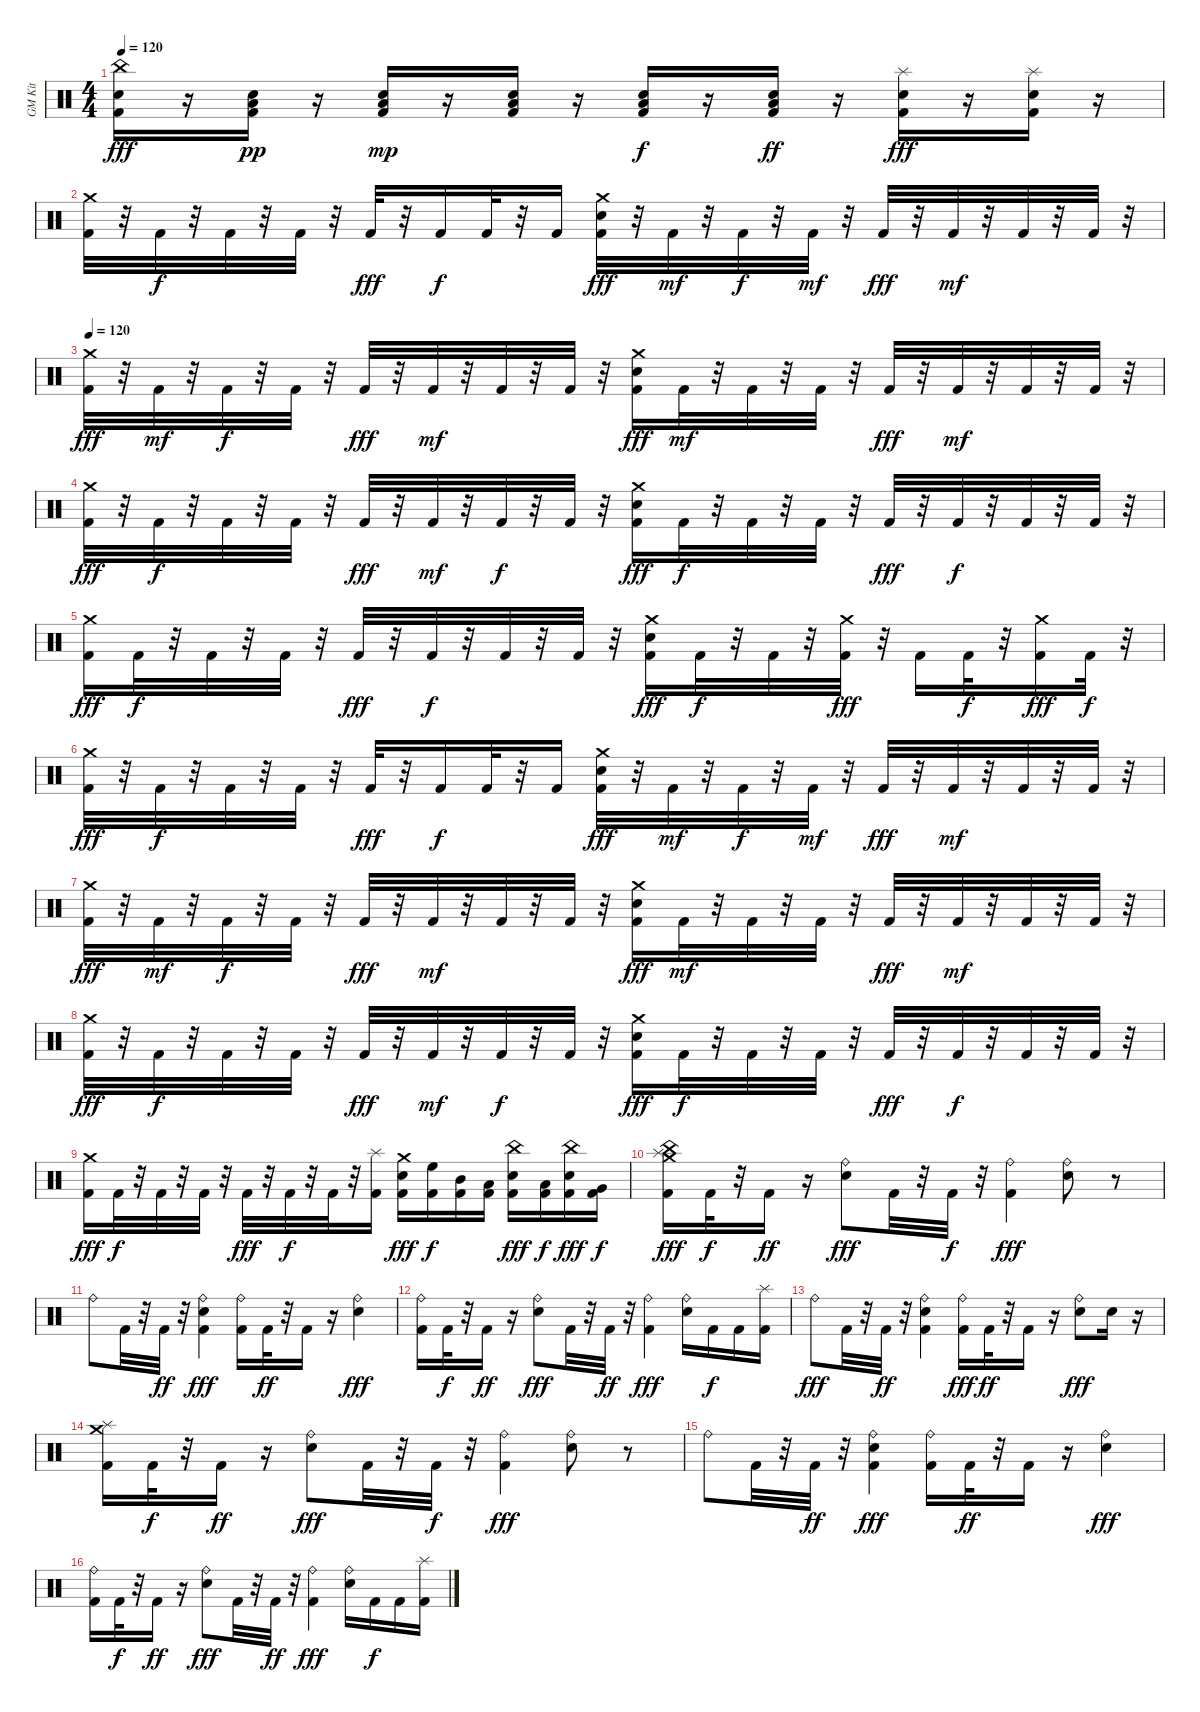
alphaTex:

\track ("GM Kit" "GM Kit") {instrument percussion}
\staff {score}
\articulation defaults
\ts (4 4)
\tempo 120
\clef neutral
\ks c
("Kick (hit) 2" "Snare (hit) 2" "China (hit)").16{dy fff} r.16 ("Kick (hit) 2" "Snare (hit) 2" "Low Floor Tom (hit)").16{dy pp} r.16 ("Kick (hit) 2" "Snare (hit) 2" "Low Floor Tom (hit)").16{dy mp} r.16 ("Kick (hit) 2" "Snare (hit) 2" "Low Floor Tom (hit)").16 r.16 ("Kick (hit) 2" "Snare (hit) 2" "Low Floor Tom (hit)").16{dy f} r.16 ("Kick (hit) 2" "Snare (hit) 2" "Low Floor Tom (hit)").16{dy ff} r.16 ("Kick (hit) 2" "Snare (hit) 2" "Splash (hit)").16{dy fff} r.16 ("Kick (hit) 2" "Snare (hit) 2" "Splash (hit)").16 r.16 |
("Kick (hit) 2" "Crash medium (hit)").32 r.32 "Kick (hit) 2".32{dy f} r.32 "Kick (hit) 2".32 r.32 "Kick (hit) 2".32 r.32 "Kick (hit) 2".32{dy fff} r.32 "Kick (hit) 2".16{dy f} "Kick (hit) 2".32 r.32 "Kick (hit) 2".16 ("Kick (hit) 2" "Snare (hit) 2" "Crash medium (hit)").32{dy fff} r.32 "Kick (hit) 2".32{dy mf} r.32 "Kick (hit) 2".32{dy f} r.32 "Kick (hit) 2".32{dy mf} r.32 "Kick (hit) 2".32{dy fff} r.32 "Kick (hit) 2".32{dy mf} r.32 "Kick (hit) 2".32 r.32 "Kick (hit) 2".32 r.32 |
\tempo 120
("Kick (hit) 2" "Crash medium (hit)").32{dy fff} r.32 "Kick (hit) 2".32{dy mf} r.32 "Kick (hit) 2".32{dy f} r.32 "Kick (hit) 2".32 r.32 "Kick (hit) 2".32{dy fff} r.32 "Kick (hit) 2".32{dy mf} r.32 "Kick (hit) 2".32 r.32 "Kick (hit) 2".32 r.32 ("Kick (hit) 2" "Snare (hit) 2" "Crash medium (hit)").16{dy fff} "Kick (hit) 2".32{dy mf} r.32 "Kick (hit) 2".32 r.32 "Kick (hit) 2".32 r.32 "Kick (hit) 2".32{dy fff} r.32 "Kick (hit) 2".32{dy mf} r.32 "Kick (hit) 2".32 r.32 "Kick (hit) 2".32 r.32 |
("Kick (hit) 2" "Crash medium (hit)").32{dy fff} r.32 "Kick (hit) 2".32{dy f} r.32 "Kick (hit) 2".32 r.32 "Kick (hit) 2".32 r.32 "Kick (hit) 2".32{dy fff} r.32 "Kick (hit) 2".32{dy mf} r.32 "Kick (hit) 2".32{dy f} r.32 "Kick (hit) 2".32 r.32 ("Kick (hit) 2" "Snare (hit) 2" "Crash medium (hit)").16{dy fff} "Kick (hit) 2".32{dy f} r.32 "Kick (hit) 2".32 r.32 "Kick (hit) 2".32 r.32 "Kick (hit) 2".32{dy fff} r.32 "Kick (hit) 2".32{dy f} r.32 "Kick (hit) 2".32 r.32 "Kick (hit) 2".32 r.32 |
("Kick (hit) 2" "Crash medium (hit)").16{dy fff} "Kick (hit) 2".32{dy f} r.32 "Kick (hit) 2".32 r.32 "Kick (hit) 2".32 r.32 "Kick (hit) 2".32{dy fff} r.32 "Kick (hit) 2".32{dy f} r.32 "Kick (hit) 2".32 r.32 "Kick (hit) 2".32 r.32 ("Kick (hit) 2" "Snare (hit) 2" "Crash medium (hit)").16{dy fff} "Kick (hit) 2".32{dy f} r.32 "Kick (hit) 2".32 r.32 ("Kick (hit) 2" "Crash medium (hit)").32{dy fff} r.32 "Kick (hit) 2".16 "Kick (hit) 2".32{dy f} r.32 ("Kick (hit) 2" "Crash medium (hit)").16{dy fff} "Kick (hit) 2".32{dy f} r.32 |
("Kick (hit) 2" "Crash medium (hit)").32{dy fff} r.32 "Kick (hit) 2".32{dy f} r.32 "Kick (hit) 2".32 r.32 "Kick (hit) 2".32 r.32 "Kick (hit) 2".32{dy fff} r.32 "Kick (hit) 2".16{dy f} "Kick (hit) 2".32 r.32 "Kick (hit) 2".16 ("Kick (hit) 2" "Snare (hit) 2" "Crash medium (hit)").32{dy fff} r.32 "Kick (hit) 2".32{dy mf} r.32 "Kick (hit) 2".32{dy f} r.32 "Kick (hit) 2".32{dy mf} r.32 "Kick (hit) 2".32{dy fff} r.32 "Kick (hit) 2".32{dy mf} r.32 "Kick (hit) 2".32 r.32 "Kick (hit) 2".32 r.32 |
("Kick (hit) 2" "Crash medium (hit)").32{dy fff} r.32 "Kick (hit) 2".32{dy mf} r.32 "Kick (hit) 2".32{dy f} r.32 "Kick (hit) 2".32 r.32 "Kick (hit) 2".32{dy fff} r.32 "Kick (hit) 2".32{dy mf} r.32 "Kick (hit) 2".32 r.32 "Kick (hit) 2".32 r.32 ("Kick (hit) 2" "Snare (hit) 2" "Crash medium (hit)").16{dy fff} "Kick (hit) 2".32{dy mf} r.32 "Kick (hit) 2".32 r.32 "Kick (hit) 2".32 r.32 "Kick (hit) 2".32{dy fff} r.32 "Kick (hit) 2".32{dy mf} r.32 "Kick (hit) 2".32 r.32 "Kick (hit) 2".32 r.32 |
("Kick (hit) 2" "Crash medium (hit)").32{dy fff} r.32 "Kick (hit) 2".32{dy f} r.32 "Kick (hit) 2".32 r.32 "Kick (hit) 2".32 r.32 "Kick (hit) 2".32{dy fff} r.32 "Kick (hit) 2".32{dy mf} r.32 "Kick (hit) 2".32{dy f} r.32 "Kick (hit) 2".32 r.32 ("Kick (hit) 2" "Snare (hit) 2" "Crash medium (hit)").16{dy fff} "Kick (hit) 2".32{dy f} r.32 "Kick (hit) 2".32 r.32 "Kick (hit) 2".32 r.32 "Kick (hit) 2".32{dy fff} r.32 "Kick (hit) 2".32{dy f} r.32 "Kick (hit) 2".32 r.32 "Kick (hit) 2".32 r.32 |
("Kick (hit) 2" "Crash medium (hit)").16{dy fff} "Kick (hit) 2".32{dy f} r.32 "Kick (hit) 2".32 r.32 "Kick (hit) 2".32 r.32 "Kick (hit) 2".32{dy fff} r.32 "Kick (hit) 2".32{dy f} r.32 "Kick (hit) 2".32 r.32 ("Kick (hit) 2" "Splash (hit)").16 ("Kick (hit) 2" "Snare (hit) 2" "Crash medium (hit)").16{dy fff} ("Kick (hit) 2" "High Floor Tom (hit)").16{dy f} ("Kick (hit) 2" "Mid Tom (hit)").16 ("Kick (hit) 2" "Low Tom (hit)").16 ("Kick (hit) 2" "Snare (hit) 2" "China (hit)").16{dy fff} ("Kick (hit) 2" "Low Tom (hit)").16{dy f} ("Kick (hit) 2" "Snare (hit) 2" "China (hit)").16{dy fff} ("Kick (hit) 2" "Very Low Tom (hit)").16{dy f} |
("Kick (hit) 2" "China (hit)" "Splash (hit)" "Crash medium (hit)").16{dy fff} "Kick (hit) 2".32{dy f} r.32 "Kick (hit) 2".16{dy ff} r.16 ("Snare (hit) 2" "Ride (bell)").8{dy fff} "Kick (hit) 2".32 r.32 "Kick (hit) 2".32{dy f} r.32 ("Kick (hit) 2" "Ride (bell)").4{dy fff} ("Snare (hit) 2" "Ride (bell)").8 r.8 |
"Ride (bell)".8 "Kick (hit) 2".32 r.32 "Kick (hit) 2".32{dy ff} r.32 ("Kick (hit) 2" "Snare (hit) 2" "Ride (bell)").4{dy fff} ("Kick (hit) 2" "Ride (bell)").16 "Kick (hit) 2".32{dy ff} r.32 "Kick (hit) 2".16 r.16 ("Snare (hit) 2" "Ride (bell)").4{dy fff} |
("Kick (hit) 2" "Ride (bell)").16 "Kick (hit) 2".32{dy f} r.32 "Kick (hit) 2".16{dy ff} r.16 ("Snare (hit) 2" "Ride (bell)").8{dy fff} "Kick (hit) 2".32 r.32 "Kick (hit) 2".32{dy ff} r.32 ("Kick (hit) 2" "Ride (bell)").4{dy fff} ("Snare (hit) 2" "Ride (bell)").16 "Kick (hit) 2".16{dy f} "Kick (hit) 2".16 ("Kick (hit) 2" "Splash (hit)").16 |
"Ride (bell)".8{dy fff} "Kick (hit) 2".32 r.32 "Kick (hit) 2".32{dy ff} r.32 ("Kick (hit) 2" "Snare (hit) 2" "Ride (bell)").4 ("Kick (hit) 2" "Ride (bell)").16{dy fff} "Kick (hit) 2".32{dy ff} r.32 "Kick (hit) 2".16 r.16 ("Snare (hit) 2" "Ride (bell)").8{dy fff} "Snare (hit) 2".16 r.16 |
("Kick (hit) 2" "Splash (hit)" "Crash medium (hit)").16 "Kick (hit) 2".32{dy f} r.32 "Kick (hit) 2".16{dy ff} r.16 ("Snare (hit) 2" "Ride (bell)").8{dy fff} "Kick (hit) 2".32 r.32 "Kick (hit) 2".32{dy f} r.32 ("Kick (hit) 2" "Ride (bell)").4{dy fff} ("Snare (hit) 2" "Ride (bell)").8 r.8 |
"Ride (bell)".8 "Kick (hit) 2".32 r.32 "Kick (hit) 2".32{dy ff} r.32 ("Kick (hit) 2" "Snare (hit) 2" "Ride (bell)").4{dy fff} ("Kick (hit) 2" "Ride (bell)").16 "Kick (hit) 2".32{dy ff} r.32 "Kick (hit) 2".16 r.16 ("Snare (hit) 2" "Ride (bell)").4{dy fff} |
("Kick (hit) 2" "Ride (bell)").16 "Kick (hit) 2".32{dy f} r.32 "Kick (hit) 2".16{dy ff} r.16 ("Snare (hit) 2" "Ride (bell)").8{dy fff} "Kick (hit) 2".32 r.32 "Kick (hit) 2".32{dy ff} r.32 ("Kick (hit) 2" "Ride (bell)").4{dy fff} ("Snare (hit) 2" "Ride (bell)").16 "Kick (hit) 2".16{dy f} "Kick (hit) 2".16 ("Kick (hit) 2" "Splash (hit)").16
